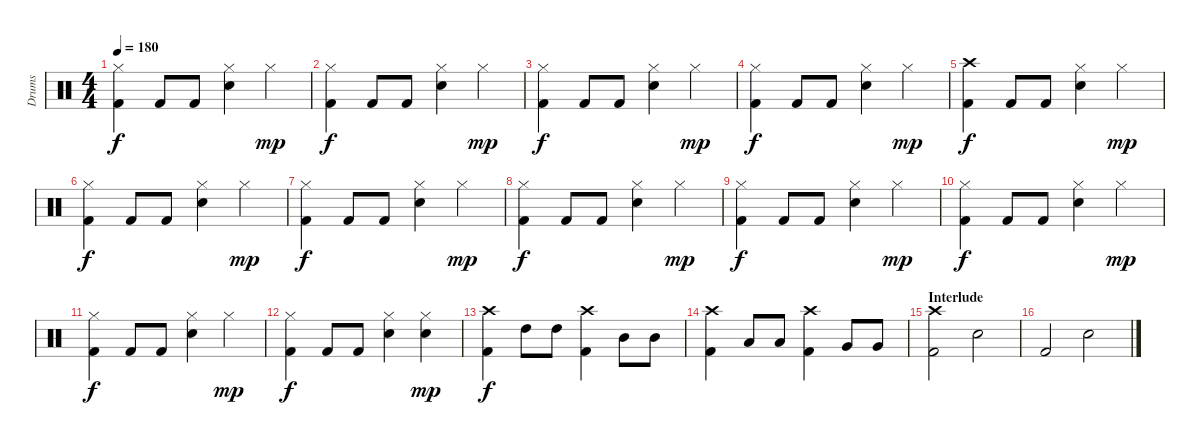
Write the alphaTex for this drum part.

\track ("Drums" "Drums") {instrument percussion}
\staff {score}
\articulation defaults
\ts (4 4)
\tempo 180
\clef neutral
\ks c
("Hi-Hat (closed)" "Kick (hit) 2").4{dy f} "Kick (hit) 2".8 "Kick (hit) 2".8 ("Hi-Hat (closed)" "Snare (hit) 2").4 "Hi-Hat (closed)".4{dy mp} |
("Hi-Hat (closed)" "Kick (hit) 2").4{dy f} "Kick (hit) 2".8 "Kick (hit) 2".8 ("Hi-Hat (closed)" "Snare (hit) 2").4 "Hi-Hat (closed)".4{dy mp} |
("Hi-Hat (closed)" "Kick (hit) 2").4{dy f} "Kick (hit) 2".8 "Kick (hit) 2".8 ("Hi-Hat (closed)" "Snare (hit) 2").4 "Hi-Hat (closed)".4{dy mp} |
("Hi-Hat (closed)" "Kick (hit) 2").4{dy f} "Kick (hit) 2".8 "Kick (hit) 2".8 ("Hi-Hat (closed)" "Snare (hit) 2").4 "Hi-Hat (closed)".4{dy mp} |
("Crash high (hit)" "Kick (hit) 2").4{dy f} "Kick (hit) 2".8 "Kick (hit) 2".8 ("Hi-Hat (closed)" "Snare (hit) 2").4 "Hi-Hat (closed)".4{dy mp} |
("Hi-Hat (closed)" "Kick (hit) 2").4{dy f} "Kick (hit) 2".8 "Kick (hit) 2".8 ("Hi-Hat (closed)" "Snare (hit) 2").4 "Hi-Hat (closed)".4{dy mp} |
("Hi-Hat (closed)" "Kick (hit) 2").4{dy f} "Kick (hit) 2".8 "Kick (hit) 2".8 ("Hi-Hat (closed)" "Snare (hit) 2").4 "Hi-Hat (closed)".4{dy mp} |
("Hi-Hat (closed)" "Kick (hit) 2").4{dy f} "Kick (hit) 2".8 "Kick (hit) 2".8 ("Hi-Hat (closed)" "Snare (hit) 2").4 "Hi-Hat (closed)".4{dy mp} |
("Hi-Hat (closed)" "Kick (hit) 2").4{dy f} "Kick (hit) 2".8 "Kick (hit) 2".8 ("Hi-Hat (closed)" "Snare (hit) 2").4 "Hi-Hat (closed)".4{dy mp} |
("Hi-Hat (closed)" "Kick (hit) 2").4{dy f} "Kick (hit) 2".8 "Kick (hit) 2".8 ("Hi-Hat (closed)" "Snare (hit) 2").4 "Hi-Hat (closed)".4{dy mp} |
("Hi-Hat (closed)" "Kick (hit) 2").4{dy f} "Kick (hit) 2".8 "Kick (hit) 2".8 ("Hi-Hat (closed)" "Snare (hit) 2").4 "Hi-Hat (closed)".4{dy mp} |
("Hi-Hat (closed)" "Kick (hit) 2").4{dy f} "Kick (hit) 2".8 "Kick (hit) 2".8 ("Hi-Hat (closed)" "Snare (hit) 2").4 ("Hi-Hat (closed)" "Snare (hit) 2").4{dy mp} |
("Crash high (hit)" "Kick (hit) 2").4{dy f} "High Tom (hit)".8 "High Tom (hit)".8 ("Crash high (hit)" "Kick (hit) 2").4 "Mid Tom (hit)".8 "Mid Tom (hit)".8 |
("Crash high (hit)" "Kick (hit) 2").4 "Low Tom (hit)".8 "Low Tom (hit)".8 ("Crash high (hit)" "Kick (hit) 2").4 "Very Low Tom (hit)".8 "Very Low Tom (hit)".8 |
\section ("" "Interlude")
("Crash high (hit)" "Kick (hit) 2").2 "Snare (hit) 2".2 |
"Kick (hit) 2".2 "Snare (hit) 2".2
